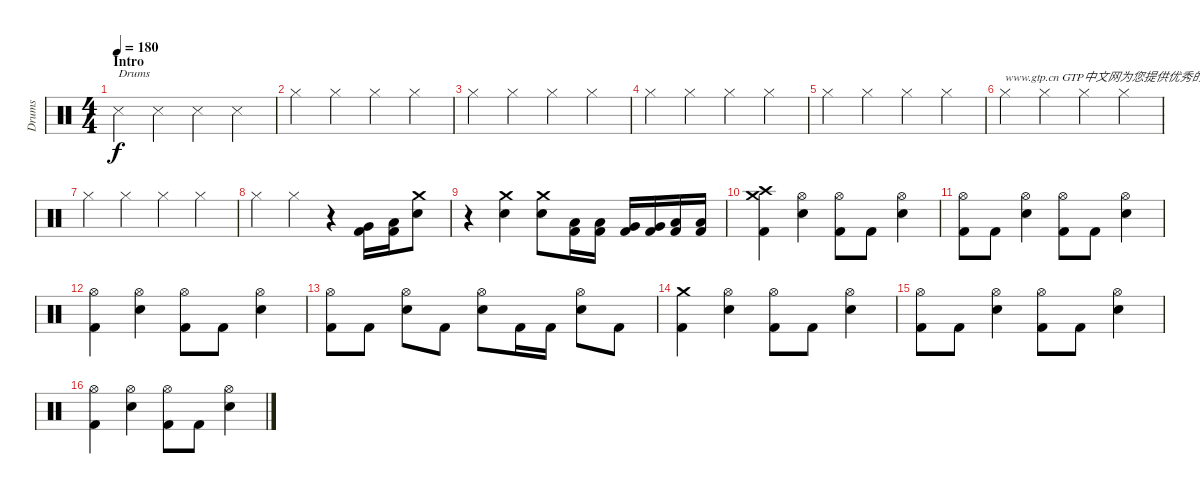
\track ("Drums" "Drums") {instrument percussion}
\staff {score}
\articulation defaults
\ts (4 4)
\section ("" "Intro")
\tempo 180
\clef neutral
\ks c "Snare (side stick) 3".4{txt "Drums" dy f} "Snare (side stick) 3".4 "Snare (side stick) 3".4 "Snare (side stick) 3".4
|
"Hi-Hat (closed)".4 "Hi-Hat (closed)".4 "Hi-Hat (closed)".4 "Hi-Hat (closed)".4 |
"Hi-Hat (closed)".4 "Hi-Hat (closed)".4 "Hi-Hat (closed)".4 "Hi-Hat (closed)".4 |
"Hi-Hat (closed)".4 "Hi-Hat (closed)".4 "Hi-Hat (closed)".4 "Hi-Hat (closed)".4 |
"Hi-Hat (closed)".4 "Hi-Hat (closed)".4 "Hi-Hat (closed)".4 "Hi-Hat (closed)".4 |
"Hi-Hat (closed)".4{txt "www.gtp.cn GTP中文网为您提供优秀的谱子"} "Hi-Hat (closed)".4 "Hi-Hat (closed)".4 "Hi-Hat (closed)".4 |
"Hi-Hat (closed)".4 "Hi-Hat (closed)".4 "Hi-Hat (closed)".4 "Hi-Hat (closed)".4 |
"Hi-Hat (closed)".4 "Hi-Hat (closed)".4 r.4 ("Very Low Tom (hit)" "Kick (hit) 2").16 ("Low Tom (hit)" "Kick (hit) 2").16 ("Crash medium (hit)" "Electric Snare (hit)").8 |
r.4 ("Crash medium (hit)" "Electric Snare (hit)").4 ("Crash medium (hit)" "Electric Snare (hit)").8 ("Low Tom (hit)" "Kick (hit) 2").16 ("Low Tom (hit)" "Kick (hit) 2").16 ("Very Low Tom (hit)" "Kick (hit) 2").16 ("Very Low Tom (hit)" "Kick (hit) 2").16 ("Low Floor Tom (hit)" "Kick (hit) 2").16 ("Low Floor Tom (hit)" "Kick (hit) 2").16 |
("Crash medium (hit)" "Crash high (hit)" "Kick (hit) 2").4 ("Hi-Hat (open)" "Electric Snare (hit)").4 ("Hi-Hat (open)" "Kick (hit) 2").8 "Kick (hit) 2".8 ("Hi-Hat (open)" "Electric Snare (hit)").4 |
("Hi-Hat (open)" "Kick (hit) 2").8 "Kick (hit) 2".8 ("Hi-Hat (open)" "Electric Snare (hit)").4 ("Hi-Hat (open)" "Kick (hit) 2").8 "Kick (hit) 2".8 ("Hi-Hat (open)" "Electric Snare (hit)").4 |
("Hi-Hat (open)" "Kick (hit) 2").4 ("Hi-Hat (open)" "Electric Snare (hit)").4 ("Hi-Hat (open)" "Kick (hit) 2").8 "Kick (hit) 2".8 ("Hi-Hat (open)" "Electric Snare (hit)").4 |
("Hi-Hat (open)" "Kick (hit) 2").8 "Kick (hit) 2".8 ("Hi-Hat (open)" "Electric Snare (hit)").8 "Kick (hit) 2".8 ("Hi-Hat (open)" "Electric Snare (hit)").8 "Kick (hit) 2".16 "Kick (hit) 2".16 ("Hi-Hat (open)" "Electric Snare (hit)").8 "Kick (hit) 2".8 |
("Crash medium (hit)" "Kick (hit) 2").4 ("Hi-Hat (open)" "Electric Snare (hit)").4 ("Hi-Hat (open)" "Kick (hit) 2").8 "Kick (hit) 2".8 ("Hi-Hat (open)" "Electric Snare (hit)").4 |
("Hi-Hat (open)" "Kick (hit) 2").8 "Kick (hit) 2".8 ("Hi-Hat (open)" "Electric Snare (hit)").4 ("Hi-Hat (open)" "Kick (hit) 2").8 "Kick (hit) 2".8 ("Hi-Hat (open)" "Electric Snare (hit)").4 |
("Hi-Hat (open)" "Kick (hit) 2").4 ("Hi-Hat (open)" "Electric Snare (hit)").4 ("Hi-Hat (open)" "Kick (hit) 2").8 "Kick (hit) 2".8 ("Hi-Hat (open)" "Electric Snare (hit)").4
